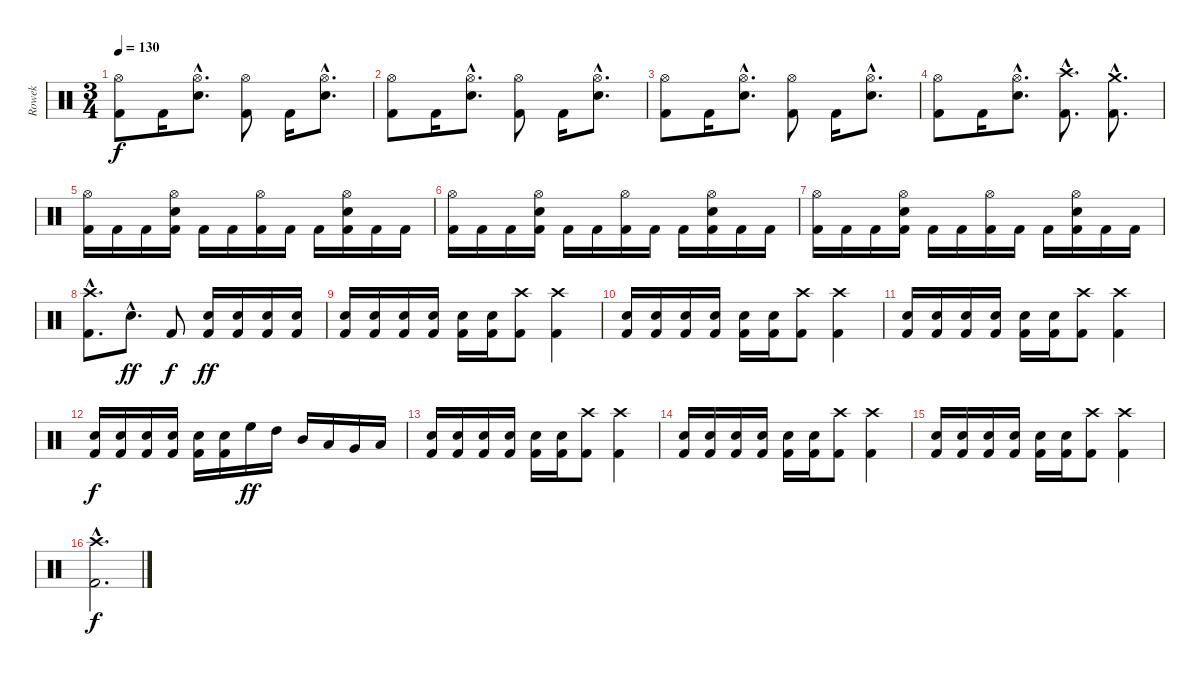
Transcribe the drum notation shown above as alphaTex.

\track ("Rowek" "Rowek") {instrument percussion}
\staff {score}
\articulation defaults
\ts (3 4)
\tempo 130
\clef neutral
\ks c
("Hi-Hat (open)" "Kick (hit) 2").8{dy f} "Kick (hit) 2".16 ("Hi-Hat (open)"{hac} "Snare (hit) 2"{hac}).8{d} ("Hi-Hat (open)" "Kick (hit) 2").8 "Kick (hit) 2".16 ("Hi-Hat (open)"{hac} "Snare (hit) 2"{hac}).8{d} |
("Hi-Hat (open)" "Kick (hit) 2").8 "Kick (hit) 2".16 ("Hi-Hat (open)"{hac} "Snare (hit) 2"{hac}).8{d} ("Hi-Hat (open)" "Kick (hit) 2").8 "Kick (hit) 2".16 ("Hi-Hat (open)"{hac} "Snare (hit) 2"{hac}).8{d} |
("Hi-Hat (open)" "Kick (hit) 2").8 "Kick (hit) 2".16 ("Hi-Hat (open)"{hac} "Snare (hit) 2"{hac}).8{d} ("Hi-Hat (open)" "Kick (hit) 2").8 "Kick (hit) 2".16 ("Hi-Hat (open)"{hac} "Snare (hit) 2"{hac}).8{d} |
("Hi-Hat (open)" "Kick (hit) 2").8 "Kick (hit) 2".16 ("Hi-Hat (open)"{hac} "Snare (hit) 2"{hac}).8{d} ("Crash high (hit)"{hac} "Kick (hit) 2"{hac}).8{d} ("Crash medium (hit)"{hac} "Kick (hit) 2"{hac}).8{d} |
("Hi-Hat (open)" "Kick (hit) 2").16 "Kick (hit) 2".16 "Kick (hit) 2".16 ("Hi-Hat (open)" "Snare (hit) 2" "Kick (hit) 2").16 "Kick (hit) 2".16 "Kick (hit) 2".16 ("Hi-Hat (open)" "Kick (hit) 2").16 "Kick (hit) 2".16 "Kick (hit) 2".16 ("Hi-Hat (open)" "Snare (hit) 2" "Kick (hit) 2").16 "Kick (hit) 2".16 "Kick (hit) 2".16 |
("Hi-Hat (open)" "Kick (hit) 2").16 "Kick (hit) 2".16 "Kick (hit) 2".16 ("Hi-Hat (open)" "Snare (hit) 2" "Kick (hit) 2").16 "Kick (hit) 2".16 "Kick (hit) 2".16 ("Hi-Hat (open)" "Kick (hit) 2").16 "Kick (hit) 2".16 "Kick (hit) 2".16 ("Hi-Hat (open)" "Snare (hit) 2" "Kick (hit) 2").16 "Kick (hit) 2".16 "Kick (hit) 2".16 |
("Hi-Hat (open)" "Kick (hit) 2").16 "Kick (hit) 2".16 "Kick (hit) 2".16 ("Hi-Hat (open)" "Snare (hit) 2" "Kick (hit) 2").16 "Kick (hit) 2".16 "Kick (hit) 2".16 ("Hi-Hat (open)" "Kick (hit) 2").16 "Kick (hit) 2".16 "Kick (hit) 2".16 ("Hi-Hat (open)" "Snare (hit) 2" "Kick (hit) 2").16 "Kick (hit) 2".16 "Kick (hit) 2".16 |
("Crash high (hit)"{hac} "Kick (hit) 2"{hac}).8{d} "Snare (hit) 2"{hac}.8{d dy ff} "Kick (hit) 2".8{dy f} ("Electric Snare (hit)" "Kick (hit) 2").16{dy ff} ("Electric Snare (hit)" "Kick (hit) 2").16 ("Electric Snare (hit)" "Kick (hit) 2").16 ("Electric Snare (hit)" "Kick (hit) 2").16 |
("Electric Snare (hit)" "Kick (hit) 2").16 ("Electric Snare (hit)" "Kick (hit) 2").16 ("Electric Snare (hit)" "Kick (hit) 2").16 ("Electric Snare (hit)" "Kick (hit) 2").16 ("Electric Snare (hit)" "Kick (hit) 2").16 ("Electric Snare (hit)" "Kick (hit) 2").16 ("Crash high (hit)" "Kick (hit) 2").8 ("Crash high (hit)" "Kick (hit) 2").4 |
("Electric Snare (hit)" "Kick (hit) 2").16 ("Electric Snare (hit)" "Kick (hit) 2").16 ("Electric Snare (hit)" "Kick (hit) 2").16 ("Electric Snare (hit)" "Kick (hit) 2").16 ("Electric Snare (hit)" "Kick (hit) 2").16 ("Electric Snare (hit)" "Kick (hit) 2").16 ("Crash high (hit)" "Kick (hit) 2").8 ("Crash high (hit)" "Kick (hit) 2").4 |
("Electric Snare (hit)" "Kick (hit) 2").16 ("Electric Snare (hit)" "Kick (hit) 2").16 ("Electric Snare (hit)" "Kick (hit) 2").16 ("Electric Snare (hit)" "Kick (hit) 2").16 ("Electric Snare (hit)" "Kick (hit) 2").16 ("Electric Snare (hit)" "Kick (hit) 2").16 ("Crash high (hit)" "Kick (hit) 2").8 ("Crash high (hit)" "Kick (hit) 2").4 |
("Electric Snare (hit)" "Kick (hit) 2").16{dy f} ("Electric Snare (hit)" "Kick (hit) 2").16 ("Electric Snare (hit)" "Kick (hit) 2").16 ("Electric Snare (hit)" "Kick (hit) 2").16 ("Electric Snare (hit)" "Kick (hit) 2").16 ("Electric Snare (hit)" "Kick (hit) 2").16 "High Floor Tom (hit)".16{dy ff} "High Tom (hit)".16 "Mid Tom (hit)".16 "Low Tom (hit)".16 "Very Low Tom (hit)".16 "Low Floor Tom (hit)".16 |
("Electric Snare (hit)" "Kick (hit) 2").16 ("Electric Snare (hit)" "Kick (hit) 2").16 ("Electric Snare (hit)" "Kick (hit) 2").16 ("Electric Snare (hit)" "Kick (hit) 2").16 ("Electric Snare (hit)" "Kick (hit) 2").16 ("Electric Snare (hit)" "Kick (hit) 2").16 ("Crash high (hit)" "Kick (hit) 2").8 ("Crash high (hit)" "Kick (hit) 2").4 |
("Electric Snare (hit)" "Kick (hit) 2").16 ("Electric Snare (hit)" "Kick (hit) 2").16 ("Electric Snare (hit)" "Kick (hit) 2").16 ("Electric Snare (hit)" "Kick (hit) 2").16 ("Electric Snare (hit)" "Kick (hit) 2").16 ("Electric Snare (hit)" "Kick (hit) 2").16 ("Crash high (hit)" "Kick (hit) 2").8 ("Crash high (hit)" "Kick (hit) 2").4 |
("Electric Snare (hit)" "Kick (hit) 2").16 ("Electric Snare (hit)" "Kick (hit) 2").16 ("Electric Snare (hit)" "Kick (hit) 2").16 ("Electric Snare (hit)" "Kick (hit) 2").16 ("Electric Snare (hit)" "Kick (hit) 2").16 ("Electric Snare (hit)" "Kick (hit) 2").16 ("Crash high (hit)" "Kick (hit) 2").8 ("Crash high (hit)" "Kick (hit) 2").4 |
("Crash high (hit)"{hac} "Kick (hit) 2"{hac}).2{d dy f}
